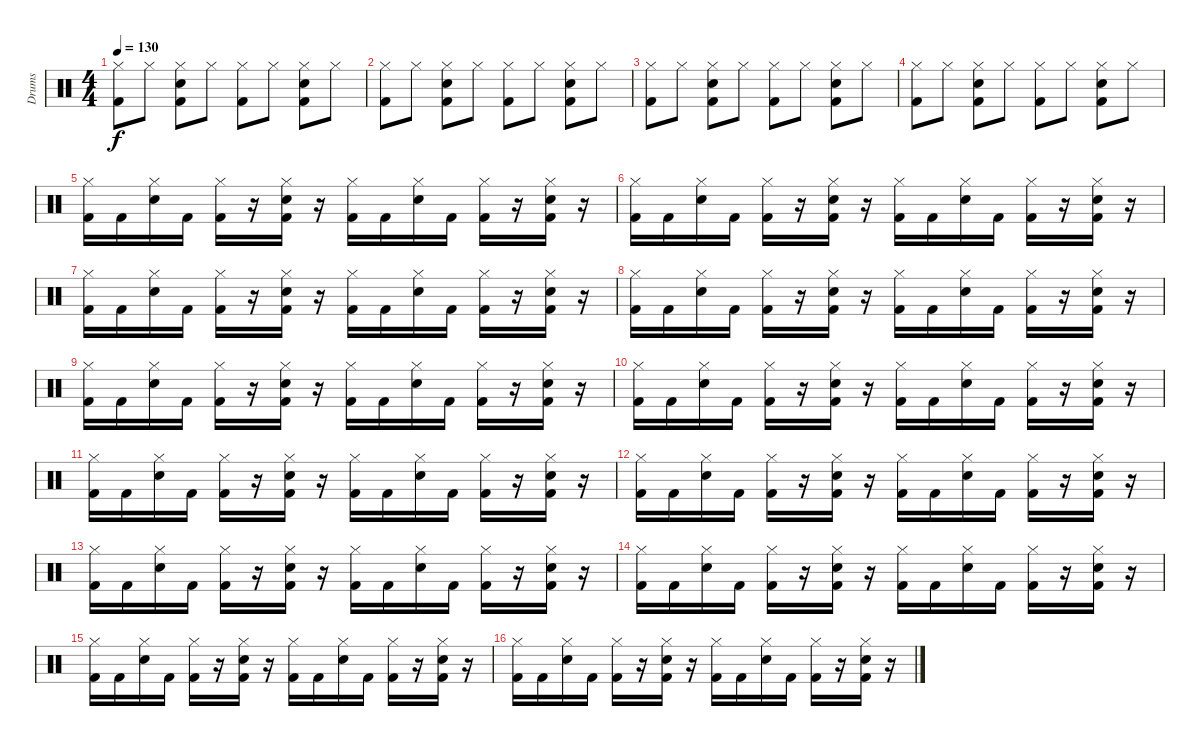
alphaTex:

\track ("Drums" "Drums") {instrument percussion}
\staff {score}
\articulation defaults
\ts (4 4)
\tempo 130
\clef neutral
\ks c
("Hi-Hat (closed)" "Kick (hit) 2").8{dy f} "Hi-Hat (closed)".8 ("Hi-Hat (closed)" "Electric Snare (hit)" "Kick (hit) 2").8 "Hi-Hat (closed)".8 ("Hi-Hat (closed)" "Kick (hit) 2").8 "Hi-Hat (closed)".8 ("Hi-Hat (closed)" "Electric Snare (hit)" "Kick (hit) 2").8 "Hi-Hat (closed)".8 |
("Hi-Hat (closed)" "Kick (hit) 2").8 "Hi-Hat (closed)".8 ("Hi-Hat (closed)" "Electric Snare (hit)" "Kick (hit) 2").8 "Hi-Hat (closed)".8 ("Hi-Hat (closed)" "Kick (hit) 2").8 "Hi-Hat (closed)".8 ("Hi-Hat (closed)" "Electric Snare (hit)" "Kick (hit) 2").8 "Hi-Hat (closed)".8 |
("Hi-Hat (closed)" "Kick (hit) 2").8 "Hi-Hat (closed)".8 ("Hi-Hat (closed)" "Electric Snare (hit)" "Kick (hit) 2").8 "Hi-Hat (closed)".8 ("Hi-Hat (closed)" "Kick (hit) 2").8 "Hi-Hat (closed)".8 ("Hi-Hat (closed)" "Electric Snare (hit)" "Kick (hit) 2").8 "Hi-Hat (closed)".8 |
("Hi-Hat (closed)" "Kick (hit) 2").8 "Hi-Hat (closed)".8 ("Hi-Hat (closed)" "Electric Snare (hit)" "Kick (hit) 2").8 "Hi-Hat (closed)".8 ("Hi-Hat (closed)" "Kick (hit) 2").8 "Hi-Hat (closed)".8 ("Hi-Hat (closed)" "Electric Snare (hit)" "Kick (hit) 2").8 "Hi-Hat (closed)".8 |
("Kick (hit) 2" "Hi-Hat (closed)").16 "Kick (hit) 2".16 ("Hi-Hat (closed)" "Electric Snare (hit)").16 "Kick (hit) 2".16 ("Kick (hit) 2" "Hi-Hat (closed)").16 r.16 ("Kick (hit) 2" "Hi-Hat (closed)" "Electric Snare (hit)").16 r.16 ("Kick (hit) 2" "Hi-Hat (closed)").16 "Kick (hit) 2".16 ("Hi-Hat (closed)" "Electric Snare (hit)").16 "Kick (hit) 2".16 ("Kick (hit) 2" "Hi-Hat (closed)").16 r.16 ("Kick (hit) 2" "Hi-Hat (closed)" "Electric Snare (hit)").16 r.16 |
("Kick (hit) 2" "Hi-Hat (closed)").16 "Kick (hit) 2".16 ("Hi-Hat (closed)" "Electric Snare (hit)").16 "Kick (hit) 2".16 ("Kick (hit) 2" "Hi-Hat (closed)").16 r.16 ("Kick (hit) 2" "Hi-Hat (closed)" "Electric Snare (hit)").16 r.16 ("Kick (hit) 2" "Hi-Hat (closed)").16 "Kick (hit) 2".16 ("Hi-Hat (closed)" "Electric Snare (hit)").16 "Kick (hit) 2".16 ("Kick (hit) 2" "Hi-Hat (closed)").16 r.16 ("Kick (hit) 2" "Hi-Hat (closed)" "Electric Snare (hit)").16 r.16 |
("Kick (hit) 2" "Hi-Hat (closed)").16 "Kick (hit) 2".16 ("Hi-Hat (closed)" "Electric Snare (hit)").16 "Kick (hit) 2".16 ("Kick (hit) 2" "Hi-Hat (closed)").16 r.16 ("Kick (hit) 2" "Hi-Hat (closed)" "Electric Snare (hit)").16 r.16 ("Kick (hit) 2" "Hi-Hat (closed)").16 "Kick (hit) 2".16 ("Hi-Hat (closed)" "Electric Snare (hit)").16 "Kick (hit) 2".16 ("Kick (hit) 2" "Hi-Hat (closed)").16 r.16 ("Kick (hit) 2" "Hi-Hat (closed)" "Electric Snare (hit)").16 r.16 |
("Kick (hit) 2" "Hi-Hat (closed)").16 "Kick (hit) 2".16 ("Hi-Hat (closed)" "Electric Snare (hit)").16 "Kick (hit) 2".16 ("Kick (hit) 2" "Hi-Hat (closed)").16 r.16 ("Kick (hit) 2" "Hi-Hat (closed)" "Electric Snare (hit)").16 r.16 ("Kick (hit) 2" "Hi-Hat (closed)").16 "Kick (hit) 2".16 ("Hi-Hat (closed)" "Electric Snare (hit)").16 "Kick (hit) 2".16 ("Kick (hit) 2" "Hi-Hat (closed)").16 r.16 ("Kick (hit) 2" "Hi-Hat (closed)" "Electric Snare (hit)").16 r.16 |
("Kick (hit) 2" "Hi-Hat (closed)").16 "Kick (hit) 2".16 ("Hi-Hat (closed)" "Electric Snare (hit)").16 "Kick (hit) 2".16 ("Kick (hit) 2" "Hi-Hat (closed)").16 r.16 ("Kick (hit) 2" "Hi-Hat (closed)" "Electric Snare (hit)").16 r.16 ("Kick (hit) 2" "Hi-Hat (closed)").16 "Kick (hit) 2".16 ("Hi-Hat (closed)" "Electric Snare (hit)").16 "Kick (hit) 2".16 ("Kick (hit) 2" "Hi-Hat (closed)").16 r.16 ("Kick (hit) 2" "Hi-Hat (closed)" "Electric Snare (hit)").16 r.16 |
("Kick (hit) 2" "Hi-Hat (closed)").16 "Kick (hit) 2".16 ("Hi-Hat (closed)" "Electric Snare (hit)").16 "Kick (hit) 2".16 ("Kick (hit) 2" "Hi-Hat (closed)").16 r.16 ("Kick (hit) 2" "Hi-Hat (closed)" "Electric Snare (hit)").16 r.16 ("Kick (hit) 2" "Hi-Hat (closed)").16 "Kick (hit) 2".16 ("Hi-Hat (closed)" "Electric Snare (hit)").16 "Kick (hit) 2".16 ("Kick (hit) 2" "Hi-Hat (closed)").16 r.16 ("Kick (hit) 2" "Hi-Hat (closed)" "Electric Snare (hit)").16 r.16 |
("Kick (hit) 2" "Hi-Hat (closed)").16 "Kick (hit) 2".16 ("Hi-Hat (closed)" "Electric Snare (hit)").16 "Kick (hit) 2".16 ("Kick (hit) 2" "Hi-Hat (closed)").16 r.16 ("Kick (hit) 2" "Hi-Hat (closed)" "Electric Snare (hit)").16 r.16 ("Kick (hit) 2" "Hi-Hat (closed)").16 "Kick (hit) 2".16 ("Hi-Hat (closed)" "Electric Snare (hit)").16 "Kick (hit) 2".16 ("Kick (hit) 2" "Hi-Hat (closed)").16 r.16 ("Kick (hit) 2" "Hi-Hat (closed)" "Electric Snare (hit)").16 r.16 |
("Kick (hit) 2" "Hi-Hat (closed)").16 "Kick (hit) 2".16 ("Hi-Hat (closed)" "Electric Snare (hit)").16 "Kick (hit) 2".16 ("Kick (hit) 2" "Hi-Hat (closed)").16 r.16 ("Kick (hit) 2" "Hi-Hat (closed)" "Electric Snare (hit)").16 r.16 ("Kick (hit) 2" "Hi-Hat (closed)").16 "Kick (hit) 2".16 ("Hi-Hat (closed)" "Electric Snare (hit)").16 "Kick (hit) 2".16 ("Kick (hit) 2" "Hi-Hat (closed)").16 r.16 ("Kick (hit) 2" "Hi-Hat (closed)" "Electric Snare (hit)").16 r.16 |
("Kick (hit) 2" "Hi-Hat (closed)").16 "Kick (hit) 2".16 ("Hi-Hat (closed)" "Electric Snare (hit)").16 "Kick (hit) 2".16 ("Kick (hit) 2" "Hi-Hat (closed)").16 r.16 ("Kick (hit) 2" "Hi-Hat (closed)" "Electric Snare (hit)").16 r.16 ("Kick (hit) 2" "Hi-Hat (closed)").16 "Kick (hit) 2".16 ("Hi-Hat (closed)" "Electric Snare (hit)").16 "Kick (hit) 2".16 ("Kick (hit) 2" "Hi-Hat (closed)").16 r.16 ("Kick (hit) 2" "Hi-Hat (closed)" "Electric Snare (hit)").16 r.16 |
("Kick (hit) 2" "Hi-Hat (closed)").16 "Kick (hit) 2".16 ("Hi-Hat (closed)" "Electric Snare (hit)").16 "Kick (hit) 2".16 ("Kick (hit) 2" "Hi-Hat (closed)").16 r.16 ("Kick (hit) 2" "Hi-Hat (closed)" "Electric Snare (hit)").16 r.16 ("Kick (hit) 2" "Hi-Hat (closed)").16 "Kick (hit) 2".16 ("Hi-Hat (closed)" "Electric Snare (hit)").16 "Kick (hit) 2".16 ("Kick (hit) 2" "Hi-Hat (closed)").16 r.16 ("Kick (hit) 2" "Hi-Hat (closed)" "Electric Snare (hit)").16 r.16 |
("Kick (hit) 2" "Hi-Hat (closed)").16 "Kick (hit) 2".16 ("Hi-Hat (closed)" "Electric Snare (hit)").16 "Kick (hit) 2".16 ("Kick (hit) 2" "Hi-Hat (closed)").16 r.16 ("Kick (hit) 2" "Hi-Hat (closed)" "Electric Snare (hit)").16 r.16 ("Kick (hit) 2" "Hi-Hat (closed)").16 "Kick (hit) 2".16 ("Hi-Hat (closed)" "Electric Snare (hit)").16 "Kick (hit) 2".16 ("Kick (hit) 2" "Hi-Hat (closed)").16 r.16 ("Kick (hit) 2" "Hi-Hat (closed)" "Electric Snare (hit)").16 r.16 |
("Kick (hit) 2" "Hi-Hat (closed)").16 "Kick (hit) 2".16 ("Hi-Hat (closed)" "Electric Snare (hit)").16 "Kick (hit) 2".16 ("Kick (hit) 2" "Hi-Hat (closed)").16 r.16 ("Kick (hit) 2" "Hi-Hat (closed)" "Electric Snare (hit)").16 r.16 ("Kick (hit) 2" "Hi-Hat (closed)").16 "Kick (hit) 2".16 ("Hi-Hat (closed)" "Electric Snare (hit)").16 "Kick (hit) 2".16 ("Kick (hit) 2" "Hi-Hat (closed)").16 r.16 ("Kick (hit) 2" "Hi-Hat (closed)" "Electric Snare (hit)").16 r.16
